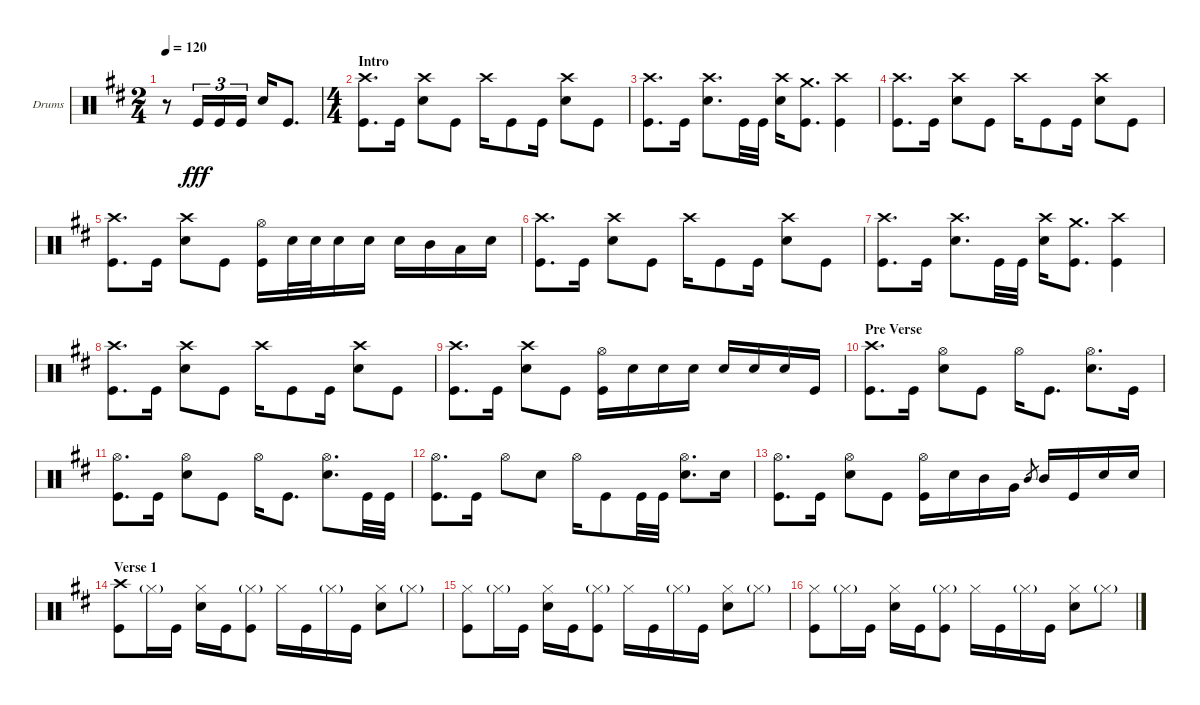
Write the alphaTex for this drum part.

\defaultSystemsLayout 4
\bracketExtendMode groupsimilarinstruments
\firstSystemTrackNameOrientation horizontal
\otherSystemsTrackNameOrientation horizontal
\track ("Garrett" "Drums") {instrument percussion}
\staff {score}
\articulation defaults
\ts (2 4)
\tempo 120
\clef neutral
\ks bminor
r.8{dy fff} "Kick (hit)".16{tu (3 2)} "Kick (hit)".16{tu (3 2)} "Kick (hit)".16{tu (3 2)} "Snare (hit) 2".16 "Kick (hit)".8{d} |
\ts (4 4)
\section ("" "Intro ")
("Crash high (hit)" "Kick (hit)").8{d} "Kick (hit)".16 ("Snare (hit) 2" "Crash high (hit)").8 "Kick (hit)".8 "Crash high (hit)".16 "Kick (hit)".8 "Kick (hit)".16 ("Snare (hit) 2" "Crash high (hit)").8 "Kick (hit)".8 |
("Crash high (hit)" "Kick (hit)").8{d} "Kick (hit)".16 ("Snare (hit) 2" "Crash high (hit)").8{d} "Kick (hit)".32 "Kick (hit)".32 ("Snare (hit) 2" "Crash high (hit)").16 ("Kick (hit)" "Crash medium (hit)").8{d} ("Kick (hit)" "Crash high (hit)").4 |
("Crash high (hit)" "Kick (hit)").8{d} "Kick (hit)".16 ("Snare (hit) 2" "Crash high (hit)").8 "Kick (hit)".8 "Crash high (hit)".16 "Kick (hit)".8 "Kick (hit)".16 ("Snare (hit) 2" "Crash high (hit)").8 "Kick (hit)".8 |
("Crash high (hit)" "Kick (hit)").8{d} "Kick (hit)".16 ("Snare (hit) 2" "Crash high (hit)").8 "Kick (hit)".8 ("Kick (hit)" "Hi-Hat (open)").16 "Snare (hit) 2".32 "Snare (hit) 2".32 "Snare (hit) 2".16 "Snare (hit) 2".16 "Snare (hit) 2".16 "Mid Tom (hit)".16 "Low Tom (hit)".16 "Snare (hit) 2".16 |
("Crash high (hit)" "Kick (hit)").8{d} "Kick (hit)".16 ("Snare (hit) 2" "Crash high (hit)").8 "Kick (hit)".8 "Crash high (hit)".16 "Kick (hit)".8 "Kick (hit)".16 ("Snare (hit) 2" "Crash high (hit)").8 "Kick (hit)".8 |
("Crash high (hit)" "Kick (hit)").8{d} "Kick (hit)".16 ("Snare (hit) 2" "Crash high (hit)").8{d} "Kick (hit)".32 "Kick (hit)".32 ("Snare (hit) 2" "Crash high (hit)").16 ("Kick (hit)" "Crash medium (hit)").8{d} ("Kick (hit)" "Crash high (hit)").4 |
("Crash high (hit)" "Kick (hit)").8{d} "Kick (hit)".16 ("Snare (hit) 2" "Crash high (hit)").8 "Kick (hit)".8 "Crash high (hit)".16 "Kick (hit)".8 "Kick (hit)".16 ("Snare (hit) 2" "Crash high (hit)").8 "Kick (hit)".8 |
("Crash high (hit)" "Kick (hit)").8{d} "Kick (hit)".16 ("Snare (hit) 2" "Crash high (hit)").8 "Kick (hit)".8 ("Kick (hit)" "Hi-Hat (open)").16 "Snare (hit) 2".16 "Snare (hit) 2".16 "Snare (hit) 2".16 "Snare (hit) 2".16 "Snare (hit) 2".16 "Snare (hit) 2".16 "Kick (hit)".16 |
\section ("" "Pre Verse")
("Crash high (hit)" "Kick (hit)").8{d} "Kick (hit)".16 ("Snare (hit) 2" "Hi-Hat (open)").8 "Kick (hit)".8 "Hi-Hat (open)".16 "Kick (hit)".8{d} ("Snare (hit) 2" "Hi-Hat (open)").8{d} "Kick (hit)".16 |
("Kick (hit)" "Hi-Hat (open)").8{d} "Kick (hit)".16 ("Snare (hit) 2" "Hi-Hat (open)").8 "Kick (hit)".8 "Hi-Hat (open)".16 "Kick (hit)".8{d} ("Snare (hit) 2" "Hi-Hat (open)").8{d} "Kick (hit)".32 "Kick (hit)".32 |
("Kick (hit)" "Hi-Hat (open)").8{d} "Kick (hit)".16 "Hi-Hat (open)".8 "Snare (hit) 2".8 "Hi-Hat (open)".16 "Kick (hit)".8 "Kick (hit)".32 "Kick (hit)".32 ("Snare (hit) 2" "Hi-Hat (open)").8{d} "Snare (hit) 2".16 |
("Kick (hit)" "Hi-Hat (open)").8{d} "Kick (hit)".16 ("Snare (hit) 2" "Hi-Hat (open)").8 "Kick (hit)".8 ("Hi-Hat (open)" "Kick (hit)").16 "Snare (hit) 2".16 "Mid Tom (hit)".16 "Very Low Tom (hit)".16 "Mid Tom (hit)".8{gr} "Mid Tom (hit)".16 "Kick (hit)".16 "Snare (hit) 2".16 "Snare (hit) 2".16 |
\section ("" "Verse 1")
("Crash high (hit)" "Kick (hit)").8 "Hi-Hat (closed)"{g}.16 "Kick (hit)".16 ("Snare (hit) 2" "Hi-Hat (closed)").16 "Kick (hit)".16 ("Hi-Hat (closed)"{g} "Kick (hit)").8 "Hi-Hat (closed)".16 "Kick (hit)".16 "Hi-Hat (closed)"{g}.16 "Kick (hit)".16 ("Snare (hit) 2" "Hi-Hat (closed)").8 "Hi-Hat (closed)"{g}.8 |
("Kick (hit)" "Hi-Hat (closed)").8 "Hi-Hat (closed)"{g}.16 "Kick (hit)".16 ("Snare (hit) 2" "Hi-Hat (closed)").16 "Kick (hit)".16 ("Hi-Hat (closed)"{g} "Kick (hit)").8 "Hi-Hat (closed)".16 "Kick (hit)".16 "Hi-Hat (closed)"{g}.16 "Kick (hit)".16 ("Snare (hit) 2" "Hi-Hat (closed)").8 "Hi-Hat (closed)"{g}.8 |
("Kick (hit)" "Hi-Hat (closed)").8 "Hi-Hat (closed)"{g}.16 "Kick (hit)".16 ("Snare (hit) 2" "Hi-Hat (closed)").16 "Kick (hit)".16 ("Hi-Hat (closed)"{g} "Kick (hit)").8 "Hi-Hat (closed)".16 "Kick (hit)".16 "Hi-Hat (closed)"{g}.16 "Kick (hit)".16 ("Snare (hit) 2" "Hi-Hat (closed)").8 "Hi-Hat (closed)"{g}.8
